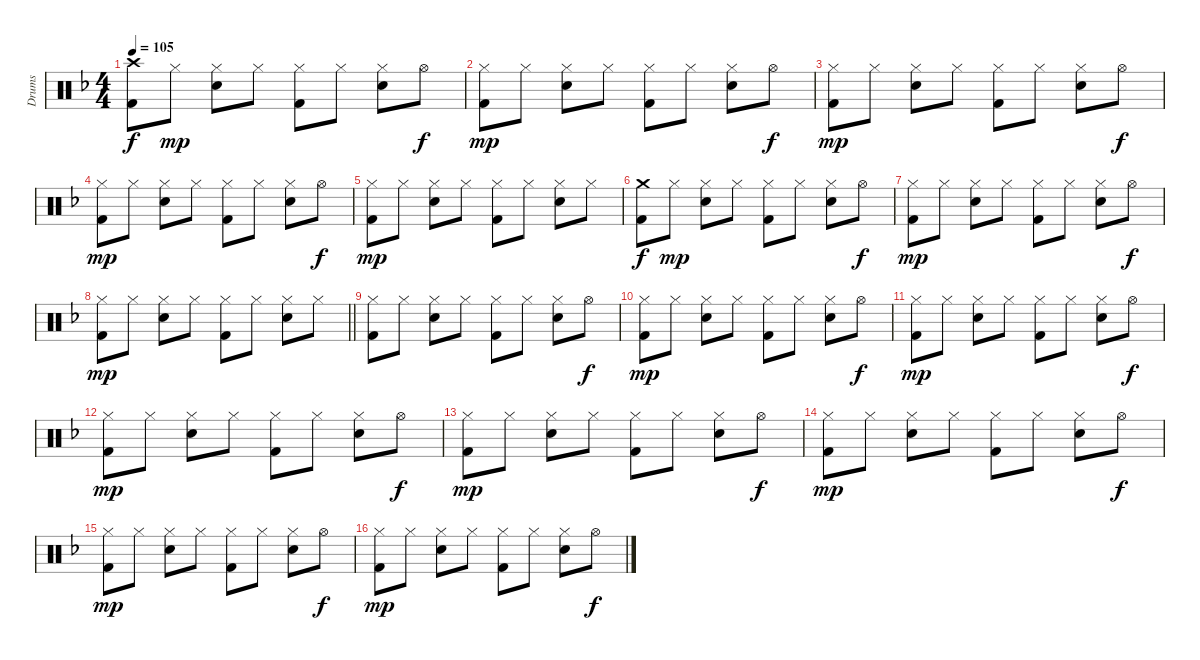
\track ("Drums" "Drums") {instrument percussion}
\staff {score}
\articulation defaults
\ts (4 4)
\tempo 105
\clef neutral
\ks dminor
("Crash high (hit)" "Kick (hit) 2").8{dy f} "Hi-Hat (closed)".8{dy mp} ("Hi-Hat (closed)" "Snare (hit) 2").8 "Hi-Hat (closed)".8 ("Hi-Hat (closed)" "Kick (hit) 2").8 "Hi-Hat (closed)".8 ("Hi-Hat (closed)" "Snare (hit) 2").8 "Hi-Hat (open)".8{dy f} |
("Hi-Hat (closed)" "Kick (hit) 2").8{dy mp} "Hi-Hat (closed)".8 ("Hi-Hat (closed)" "Snare (hit) 2").8 "Hi-Hat (closed)".8 ("Hi-Hat (closed)" "Kick (hit) 2").8 "Hi-Hat (closed)".8 ("Hi-Hat (closed)" "Snare (hit) 2").8 "Hi-Hat (open)".8{dy f} |
("Hi-Hat (closed)" "Kick (hit) 2").8{dy mp} "Hi-Hat (closed)".8 ("Hi-Hat (closed)" "Snare (hit) 2").8 "Hi-Hat (closed)".8 ("Hi-Hat (closed)" "Kick (hit) 2").8 "Hi-Hat (closed)".8 ("Hi-Hat (closed)" "Snare (hit) 2").8 "Hi-Hat (open)".8{dy f} |
("Hi-Hat (closed)" "Kick (hit) 2").8{dy mp} "Hi-Hat (closed)".8 ("Hi-Hat (closed)" "Snare (hit) 2").8 "Hi-Hat (closed)".8 ("Hi-Hat (closed)" "Kick (hit) 2").8 "Hi-Hat (closed)".8 ("Hi-Hat (closed)" "Snare (hit) 2").8 "Hi-Hat (open)".8{dy f} |
("Hi-Hat (closed)" "Kick (hit) 2").8{dy mp} "Hi-Hat (closed)".8 ("Hi-Hat (closed)" "Snare (hit) 2").8 "Hi-Hat (closed)".8 ("Hi-Hat (closed)" "Kick (hit) 2").8 "Hi-Hat (closed)".8 ("Hi-Hat (closed)" "Snare (hit) 2").8 "Hi-Hat (closed)".8 |
("Crash medium (hit)" "Kick (hit) 2").8{dy f} "Hi-Hat (closed)".8{dy mp} ("Hi-Hat (closed)" "Snare (hit) 2").8 "Hi-Hat (closed)".8 ("Hi-Hat (closed)" "Kick (hit) 2").8 "Hi-Hat (closed)".8 ("Hi-Hat (closed)" "Snare (hit) 2").8 "Hi-Hat (open)".8{dy f} |
("Hi-Hat (closed)" "Kick (hit) 2").8{dy mp} "Hi-Hat (closed)".8 ("Hi-Hat (closed)" "Snare (hit) 2").8 "Hi-Hat (closed)".8 ("Hi-Hat (closed)" "Kick (hit) 2").8 "Hi-Hat (closed)".8 ("Hi-Hat (closed)" "Snare (hit) 2").8 "Hi-Hat (open)".8{dy f} |
\barLineRight lightlight
("Hi-Hat (closed)" "Kick (hit) 2").8{dy mp} "Hi-Hat (closed)".8 ("Hi-Hat (closed)" "Snare (hit) 2").8 "Hi-Hat (closed)".8 ("Hi-Hat (closed)" "Kick (hit) 2").8 "Hi-Hat (closed)".8 ("Hi-Hat (closed)" "Snare (hit) 2").8 "Hi-Hat (closed)".8 |
("Hi-Hat (closed)" "Kick (hit) 2").8 "Hi-Hat (closed)".8 ("Hi-Hat (closed)" "Snare (hit) 2").8 "Hi-Hat (closed)".8 ("Hi-Hat (closed)" "Kick (hit) 2").8 "Hi-Hat (closed)".8 ("Hi-Hat (closed)" "Snare (hit) 2").8 "Hi-Hat (open)".8{dy f} |
("Hi-Hat (closed)" "Kick (hit) 2").8{dy mp} "Hi-Hat (closed)".8 ("Hi-Hat (closed)" "Snare (hit) 2").8 "Hi-Hat (closed)".8 ("Hi-Hat (closed)" "Kick (hit) 2").8 "Hi-Hat (closed)".8 ("Hi-Hat (closed)" "Snare (hit) 2").8 "Hi-Hat (open)".8{dy f} |
("Hi-Hat (closed)" "Kick (hit) 2").8{dy mp} "Hi-Hat (closed)".8 ("Hi-Hat (closed)" "Snare (hit) 2").8 "Hi-Hat (closed)".8 ("Hi-Hat (closed)" "Kick (hit) 2").8 "Hi-Hat (closed)".8 ("Hi-Hat (closed)" "Snare (hit) 2").8 "Hi-Hat (open)".8{dy f} |
("Hi-Hat (closed)" "Kick (hit) 2").8{dy mp} "Hi-Hat (closed)".8 ("Hi-Hat (closed)" "Snare (hit) 2").8 "Hi-Hat (closed)".8 ("Hi-Hat (closed)" "Kick (hit) 2").8 "Hi-Hat (closed)".8 ("Hi-Hat (closed)" "Snare (hit) 2").8 "Hi-Hat (open)".8{dy f} |
("Hi-Hat (closed)" "Kick (hit) 2").8{dy mp} "Hi-Hat (closed)".8 ("Hi-Hat (closed)" "Snare (hit) 2").8 "Hi-Hat (closed)".8 ("Hi-Hat (closed)" "Kick (hit) 2").8 "Hi-Hat (closed)".8 ("Hi-Hat (closed)" "Snare (hit) 2").8 "Hi-Hat (open)".8{dy f} |
("Hi-Hat (closed)" "Kick (hit) 2").8{dy mp} "Hi-Hat (closed)".8 ("Hi-Hat (closed)" "Snare (hit) 2").8 "Hi-Hat (closed)".8 ("Hi-Hat (closed)" "Kick (hit) 2").8 "Hi-Hat (closed)".8 ("Hi-Hat (closed)" "Snare (hit) 2").8 "Hi-Hat (open)".8{dy f} |
("Hi-Hat (closed)" "Kick (hit) 2").8{dy mp} "Hi-Hat (closed)".8 ("Hi-Hat (closed)" "Snare (hit) 2").8 "Hi-Hat (closed)".8 ("Hi-Hat (closed)" "Kick (hit) 2").8 "Hi-Hat (closed)".8 ("Hi-Hat (closed)" "Snare (hit) 2").8 "Hi-Hat (open)".8{dy f} |
("Hi-Hat (closed)" "Kick (hit) 2").8{dy mp} "Hi-Hat (closed)".8 ("Hi-Hat (closed)" "Snare (hit) 2").8 "Hi-Hat (closed)".8 ("Hi-Hat (closed)" "Kick (hit) 2").8 "Hi-Hat (closed)".8 ("Hi-Hat (closed)" "Snare (hit) 2").8 "Hi-Hat (open)".8{dy f}
